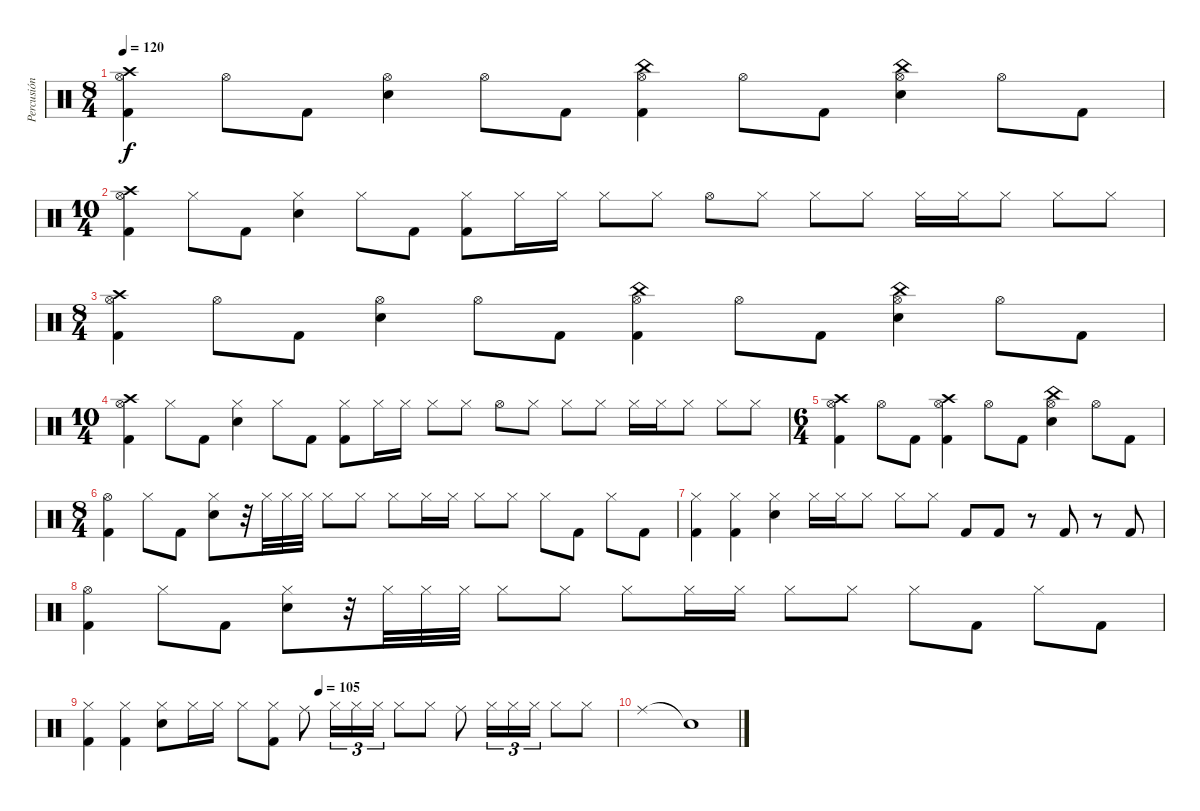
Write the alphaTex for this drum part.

\track ("Percusión" "Percusión") {instrument percussion}
\staff {score}
\articulation defaults
\ts (8 4)
\tempo 120
\clef neutral
\ks c
("Crash high (hit)" "Hi-Hat (open)" "Kick (hit) 2").4{dy f} "Hi-Hat (open)".8 "Kick (hit) 2".8 ("Hi-Hat (open)" "Electric Snare (hit)").4 "Hi-Hat (open)".8 "Kick (hit) 2".8 ("China (hit)" "Hi-Hat (open)" "Kick (hit) 2").4 "Hi-Hat (open)".8 "Kick (hit) 2".8 ("China (hit)" "Hi-Hat (open)" "Electric Snare (hit)").4 "Hi-Hat (open)".8 "Kick (hit) 2".8 |
\ts (10 4)
("Crash high (hit)" "Hi-Hat (open)" "Kick (hit) 2").4 "Hi-Hat (closed)".8 "Kick (hit) 2".8 ("Hi-Hat (closed)" "Electric Snare (hit)").4 "Hi-Hat (closed)".8 "Kick (hit) 2".8 ("Hi-Hat (closed)" "Kick (hit) 2").8 "Hi-Hat (closed)".16 "Hi-Hat (closed)".16 "Hi-Hat (closed)".8 "Hi-Hat (closed)".8 "Hi-Hat (open)".8 "Hi-Hat (closed)".8 "Hi-Hat (closed)".8 "Hi-Hat (closed)".8 "Hi-Hat (closed)".16 "Hi-Hat (closed)".16 "Hi-Hat (closed)".8 "Hi-Hat (closed)".8 "Hi-Hat (closed)".8 |
\ts (8 4)
("Crash high (hit)" "Hi-Hat (open)" "Kick (hit) 2").4 "Hi-Hat (open)".8 "Kick (hit) 2".8 ("Hi-Hat (open)" "Electric Snare (hit)").4 "Hi-Hat (open)".8 "Kick (hit) 2".8 ("China (hit)" "Hi-Hat (open)" "Kick (hit) 2").4 "Hi-Hat (open)".8 "Kick (hit) 2".8 ("China (hit)" "Hi-Hat (open)" "Electric Snare (hit)").4 "Hi-Hat (open)".8 "Kick (hit) 2".8 |
\ts (10 4)
("Crash high (hit)" "Hi-Hat (open)" "Kick (hit) 2").4 "Hi-Hat (closed)".8 "Kick (hit) 2".8 ("Hi-Hat (closed)" "Electric Snare (hit)").4 "Hi-Hat (closed)".8 "Kick (hit) 2".8 ("Hi-Hat (closed)" "Kick (hit) 2").8 "Hi-Hat (closed)".16 "Hi-Hat (closed)".16 "Hi-Hat (closed)".8 "Hi-Hat (closed)".8 "Hi-Hat (open)".8 "Hi-Hat (closed)".8 "Hi-Hat (closed)".8 "Hi-Hat (closed)".8 "Hi-Hat (closed)".16 "Hi-Hat (closed)".16 "Hi-Hat (closed)".8 "Hi-Hat (closed)".8 "Hi-Hat (closed)".8 |
\ts (6 4)
("Crash high (hit)" "Hi-Hat (open)" "Kick (hit) 2").4 "Hi-Hat (open)".8 "Kick (hit) 2".8 ("Crash high (hit)" "Hi-Hat (open)" "Kick (hit) 2").4 "Hi-Hat (open)".8 "Kick (hit) 2".8 ("China (hit)" "Hi-Hat (open)" "Electric Snare (hit)").4 "Hi-Hat (open)".8 "Kick (hit) 2".8 |
\ts (8 4)
("Hi-Hat (open)" "Kick (hit) 2").4 "Hi-Hat (closed)".8 "Kick (hit) 2".8 ("Hi-Hat (closed)" "Electric Snare (hit)").8 r.32 "Hi-Hat (closed)".32 "Hi-Hat (closed)".32 "Hi-Hat (closed)".32 "Hi-Hat (closed)".8 "Hi-Hat (closed)".8 "Hi-Hat (closed)".8 "Hi-Hat (closed)".16 "Hi-Hat (closed)".16 "Hi-Hat (closed)".8 "Hi-Hat (closed)".8 "Hi-Hat (closed)".8 "Kick (hit) 2".8 "Hi-Hat (closed)".8 "Kick (hit) 2".8 |
("Hi-Hat (closed)" "Kick (hit) 2").4 ("Hi-Hat (closed)" "Kick (hit) 2").4 ("Hi-Hat (closed)" "Electric Snare (hit)").4 "Hi-Hat (closed)".16 "Hi-Hat (closed)".16 "Hi-Hat (closed)".8 "Hi-Hat (closed)".8 "Hi-Hat (closed)".8 "Kick (hit) 2".8 "Kick (hit) 2".8 r.8 "Kick (hit) 2".8 r.8 "Kick (hit) 2".8 |
("Hi-Hat (open)" "Kick (hit) 2").4 "Hi-Hat (closed)".8 "Kick (hit) 2".8 ("Hi-Hat (closed)" "Electric Snare (hit)").8 r.32 "Hi-Hat (closed)".32 "Hi-Hat (closed)".32 "Hi-Hat (closed)".32 "Hi-Hat (closed)".8 "Hi-Hat (closed)".8 "Hi-Hat (closed)".8 "Hi-Hat (closed)".16 "Hi-Hat (closed)".16 "Hi-Hat (closed)".8 "Hi-Hat (closed)".8 "Hi-Hat (closed)".8 "Kick (hit) 2".8 "Hi-Hat (closed)".8 "Kick (hit) 2".8 |
\tempo (105 0.4375)
("Hi-Hat (closed)" "Kick (hit) 2").4 ("Hi-Hat (closed)" "Kick (hit) 2").4 ("Hi-Hat (closed)" "Electric Snare (hit)").8 "Hi-Hat (closed)".16 "Hi-Hat (closed)".16 "Hi-Hat (closed)".8 ("Hi-Hat (closed)" "Kick (hit) 2").8 "Ride (middle)".8 "Hi-Hat (closed)".16{tu (3 2)} "Hi-Hat (closed)".16{tu (3 2)} "Hi-Hat (closed)".16{tu (3 2)} "Hi-Hat (closed)".8 "Hi-Hat (closed)".8 "Ride (middle)".8 "Hi-Hat (closed)".16{tu (3 2)} "Hi-Hat (closed)".16{tu (3 2)} "Hi-Hat (closed)".16{tu (3 2)} "Hi-Hat (closed)".8 "Hi-Hat (closed)".8 |
"Ride (middle)".1 "Snare (hit)"{t}.1
